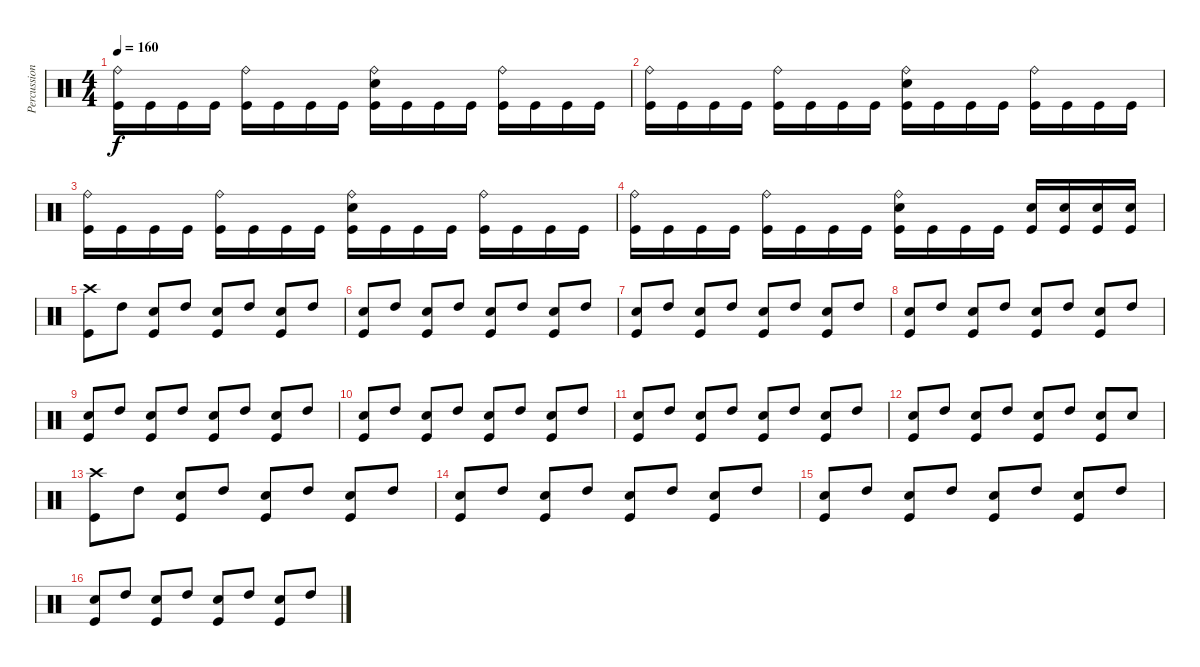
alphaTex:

\track ("Percussioni" "Percussion") {instrument percussion}
\staff {score}
\articulation defaults
\ts (4 4)
\tempo 160
\clef neutral
\ks c
("Ride (bell)" "Kick (hit)").16{dy f} "Kick (hit)".16 "Kick (hit)".16 "Kick (hit)".16 ("Ride (bell)" "Kick (hit)").16 "Kick (hit)".16 "Kick (hit)".16 "Kick (hit)".16 ("Snare (hit) 2" "Ride (bell)" "Kick (hit)").16 "Kick (hit)".16 "Kick (hit)".16 "Kick (hit)".16 ("Ride (bell)" "Kick (hit)").16 "Kick (hit)".16 "Kick (hit)".16 "Kick (hit)".16 |
("Ride (bell)" "Kick (hit)").16 "Kick (hit)".16 "Kick (hit)".16 "Kick (hit)".16 ("Ride (bell)" "Kick (hit)").16 "Kick (hit)".16 "Kick (hit)".16 "Kick (hit)".16 ("Snare (hit) 2" "Ride (bell)" "Kick (hit)").16 "Kick (hit)".16 "Kick (hit)".16 "Kick (hit)".16 ("Ride (bell)" "Kick (hit)").16 "Kick (hit)".16 "Kick (hit)".16 "Kick (hit)".16 |
("Ride (bell)" "Kick (hit)").16 "Kick (hit)".16 "Kick (hit)".16 "Kick (hit)".16 ("Ride (bell)" "Kick (hit)").16 "Kick (hit)".16 "Kick (hit)".16 "Kick (hit)".16 ("Snare (hit) 2" "Ride (bell)" "Kick (hit)").16 "Kick (hit)".16 "Kick (hit)".16 "Kick (hit)".16 ("Ride (bell)" "Kick (hit)").16 "Kick (hit)".16 "Kick (hit)".16 "Kick (hit)".16 |
("Ride (bell)" "Kick (hit)").16 "Kick (hit)".16 "Kick (hit)".16 "Kick (hit)".16 ("Ride (bell)" "Kick (hit)").16 "Kick (hit)".16 "Kick (hit)".16 "Kick (hit)".16 ("Snare (hit) 2" "Ride (bell)" "Kick (hit)").16 "Kick (hit)".16 "Kick (hit)".16 "Kick (hit)".16 ("Snare (hit) 2" "Kick (hit)").16 ("Snare (hit) 2" "Kick (hit)").16 ("Snare (hit) 2" "Kick (hit)").16 ("Snare (hit) 2" "Kick (hit)").16 |
("Crash high (hit)" "Kick (hit)").8 "High Tom (hit)".8 ("Snare (hit) 2" "Kick (hit)").8 "High Tom (hit)".8 ("Snare (hit) 2" "Kick (hit)").8 "High Tom (hit)".8 ("Snare (hit) 2" "Kick (hit)").8 "High Tom (hit)".8 |
("Snare (hit) 2" "Kick (hit)").8 "High Tom (hit)".8 ("Snare (hit) 2" "Kick (hit)").8 "High Tom (hit)".8 ("Snare (hit) 2" "Kick (hit)").8 "High Tom (hit)".8 ("Snare (hit) 2" "Kick (hit)").8 "High Tom (hit)".8 |
("Snare (hit) 2" "Kick (hit)").8 "High Tom (hit)".8 ("Snare (hit) 2" "Kick (hit)").8 "High Tom (hit)".8 ("Snare (hit) 2" "Kick (hit)").8 "High Tom (hit)".8 ("Snare (hit) 2" "Kick (hit)").8 "High Tom (hit)".8 |
("Snare (hit) 2" "Kick (hit)").8 "High Tom (hit)".8 ("Snare (hit) 2" "Kick (hit)").8 "High Tom (hit)".8 ("Snare (hit) 2" "Kick (hit)").8 "High Tom (hit)".8 ("Snare (hit) 2" "Kick (hit)").8 "High Tom (hit)".8 |
("Snare (hit) 2" "Kick (hit)").8 "High Tom (hit)".8 ("Snare (hit) 2" "Kick (hit)").8 "High Tom (hit)".8 ("Snare (hit) 2" "Kick (hit)").8 "High Tom (hit)".8 ("Snare (hit) 2" "Kick (hit)").8 "High Tom (hit)".8 |
("Snare (hit) 2" "Kick (hit)").8 "High Tom (hit)".8 ("Snare (hit) 2" "Kick (hit)").8 "High Tom (hit)".8 ("Snare (hit) 2" "Kick (hit)").8 "High Tom (hit)".8 ("Snare (hit) 2" "Kick (hit)").8 "High Tom (hit)".8 |
("Snare (hit) 2" "Kick (hit)").8 "High Tom (hit)".8 ("Snare (hit) 2" "Kick (hit)").8 "High Tom (hit)".8 ("Snare (hit) 2" "Kick (hit)").8 "High Tom (hit)".8 ("Snare (hit) 2" "Kick (hit)").8 "High Tom (hit)".8 |
("Snare (hit) 2" "Kick (hit)").8 "High Tom (hit)".8 ("Snare (hit) 2" "Kick (hit)").8 "High Tom (hit)".8 ("Snare (hit) 2" "Kick (hit)").8 "High Tom (hit)".8 ("Snare (hit) 2" "Kick (hit)").8 "Snare (hit) 2".8 |
("Crash high (hit)" "Kick (hit)").8 "High Tom (hit)".8 ("Snare (hit) 2" "Kick (hit)").8 "High Tom (hit)".8 ("Snare (hit) 2" "Kick (hit)").8 "High Tom (hit)".8 ("Snare (hit) 2" "Kick (hit)").8 "High Tom (hit)".8 |
("Snare (hit) 2" "Kick (hit)").8 "High Tom (hit)".8 ("Snare (hit) 2" "Kick (hit)").8 "High Tom (hit)".8 ("Snare (hit) 2" "Kick (hit)").8 "High Tom (hit)".8 ("Snare (hit) 2" "Kick (hit)").8 "High Tom (hit)".8 |
("Snare (hit) 2" "Kick (hit)").8 "High Tom (hit)".8 ("Snare (hit) 2" "Kick (hit)").8 "High Tom (hit)".8 ("Snare (hit) 2" "Kick (hit)").8 "High Tom (hit)".8 ("Snare (hit) 2" "Kick (hit)").8 "High Tom (hit)".8 |
("Snare (hit) 2" "Kick (hit)").8 "High Tom (hit)".8 ("Snare (hit) 2" "Kick (hit)").8 "High Tom (hit)".8 ("Snare (hit) 2" "Kick (hit)").8 "High Tom (hit)".8 ("Snare (hit) 2" "Kick (hit)").8 "High Tom (hit)".8
